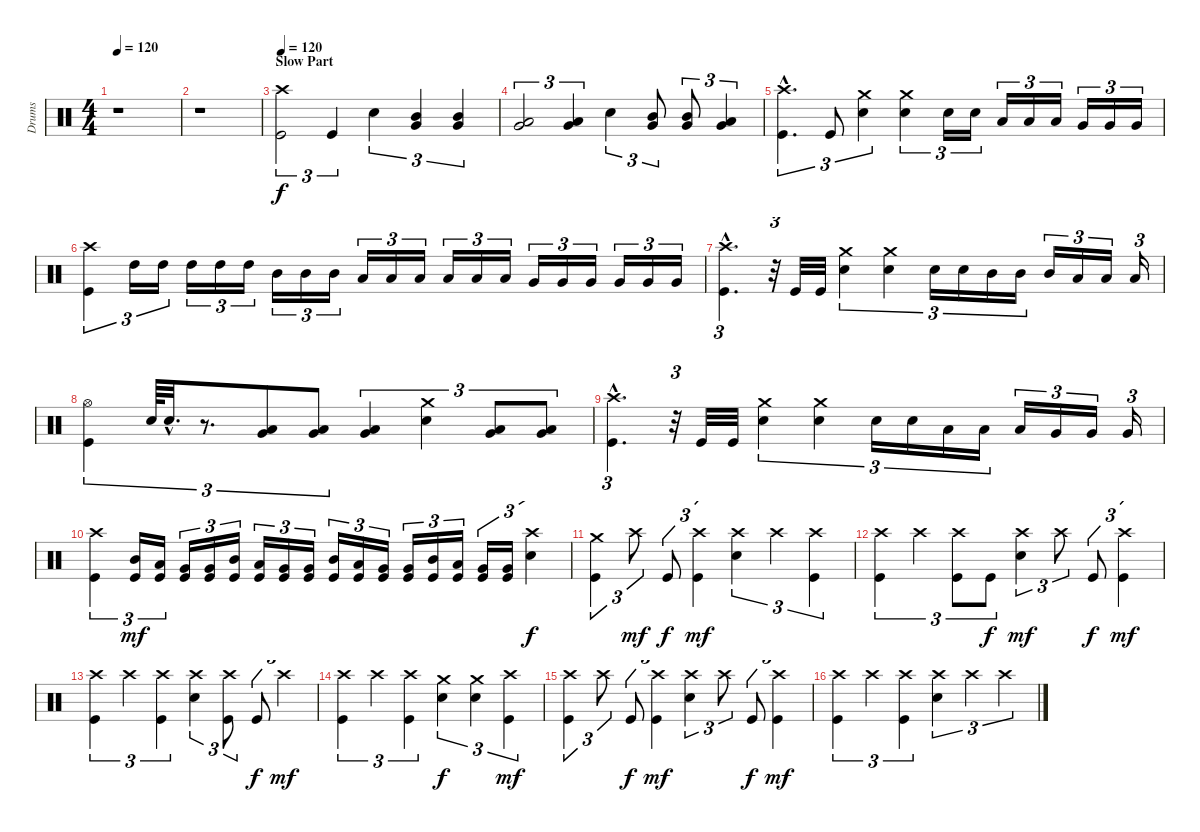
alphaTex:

\track ("Drums" "Drums") {instrument percussion}
\staff {score}
\articulation defaults
\ts (4 4)
\tempo 120
\clef neutral
\ks c
r.1{dy p} |
r.1 |
\section ("" "Slow Part")
\tempo 120
("Crash high (hit)" "Kick (hit)").2{tu (3 2) dy f} "Kick (hit)".4{tu (3 2)} "Electric Snare (hit)".4{tu (3 2)} ("Mid Tom (hit)" "Very Low Tom (hit)").4{tu (3 2)} ("Mid Tom (hit)" "Very Low Tom (hit)").4{tu (3 2)} |
("Low Tom (hit)" "Very Low Tom (hit)").2{tu (3 2)} ("Low Tom (hit)" "Very Low Tom (hit)").4{tu (3 2)} "Electric Snare (hit)".4{tu (3 2)} ("Mid Tom (hit)" "Very Low Tom (hit)").8{tu (3 2)} ("Mid Tom (hit)" "Very Low Tom (hit)").8{tu (3 2)} ("Low Tom (hit)" "Very Low Tom (hit)").4{tu (3 2)} |
("Crash high (hit)"{hac} "Kick (hit)"{hac}).4{d tu (3 2)} "Kick (hit)".8{tu (3 2)} ("Crash medium (hit)" "Electric Snare (hit)").4{tu (3 2)} ("Crash medium (hit)" "Electric Snare (hit)").4{tu (3 2)} "Electric Snare (hit)".16{tu (3 2)} "Electric Snare (hit)".16{tu (3 2)} "Low Tom (hit)".16{tu (3 2)} "Low Tom (hit)".16{tu (3 2)} "Low Tom (hit)".16{tu (3 2)} "Very Low Tom (hit)".16{tu (3 2)} "Very Low Tom (hit)".16{tu (3 2)} "Very Low Tom (hit)".16{tu (3 2)} |
("Crash high (hit)" "Kick (hit)").4{tu (3 2)} "High Tom (hit)".16{tu (3 2)} "High Tom (hit)".16{tu (3 2)} "High Tom (hit)".16{tu (3 2)} "High Tom (hit)".16{tu (3 2)} "High Tom (hit)".16{tu (3 2)} "Mid Tom (hit)".16{tu (3 2)} "Mid Tom (hit)".16{tu (3 2)} "Mid Tom (hit)".16{tu (3 2)} "Low Tom (hit)".16{tu (3 2)} "Low Tom (hit)".16{tu (3 2)} "Low Tom (hit)".16{tu (3 2)} "Low Tom (hit)".16{tu (3 2)} "Low Tom (hit)".16{tu (3 2)} "Low Tom (hit)".16{tu (3 2)} "Very Low Tom (hit)".16{tu (3 2)} "Very Low Tom (hit)".16{tu (3 2)} "Very Low Tom (hit)".16{tu (3 2)} "Very Low Tom (hit)".16{tu (3 2)} "Very Low Tom (hit)".16{tu (3 2)} "Very Low Tom (hit)".16{tu (3 2)} |
("Crash high (hit)"{hac} "Kick (hit)"{hac}).4{d tu (3 2)} r.32{tu (3 2)} "Kick (hit)".32 "Kick (hit)".32 ("Crash medium (hit)" "Electric Snare (hit)").4{tu (3 2)} ("Crash medium (hit)" "Electric Snare (hit)").4{tu (3 2)} "Electric Snare (hit)".16{tu (3 2)} "Electric Snare (hit)".16{tu (3 2)} "Mid Tom (hit)".16{tu (3 2)} "Mid Tom (hit)".16{tu (3 2)} "Mid Tom (hit)".16{tu (3 2)} "Low Tom (hit)".16{tu (3 2)} "Low Tom (hit)".16{tu (3 2)} "Low Tom (hit)".16{tu (3 2)} |
("Hi-Hat (open)" "Kick (hit)").4{tu (3 2)} "Electric Snare (hit)".64{tu (3 2)} "Electric Snare (hit)"{hac}.32{d tu (3 2)} r.8{d tu (3 2)} ("Low Tom (hit)" "Very Low Tom (hit)").8{tu (3 2)} ("Low Tom (hit)" "Very Low Tom (hit)").8{tu (3 2)} ("Low Tom (hit)" "Very Low Tom (hit)").4{tu (3 2)} ("Crash medium (hit)" "Electric Snare (hit)").4{tu (3 2)} ("Low Tom (hit)" "Very Low Tom (hit)").8{tu (3 2)} ("Low Tom (hit)" "Very Low Tom (hit)").8{tu (3 2)} |
("Crash high (hit)"{hac} "Kick (hit)"{hac}).4{d tu (3 2)} r.32{tu (3 2)} "Kick (hit)".32 "Kick (hit)".32 ("Crash medium (hit)" "Electric Snare (hit)").4{tu (3 2)} ("Crash medium (hit)" "Electric Snare (hit)").4{tu (3 2)} "Electric Snare (hit)".16{tu (3 2)} "Electric Snare (hit)".16{tu (3 2)} "Low Tom (hit)".16{tu (3 2)} "Low Tom (hit)".16{tu (3 2)} "Low Tom (hit)".16{tu (3 2)} "Very Low Tom (hit)".16{tu (3 2)} "Very Low Tom (hit)".16{tu (3 2)} "Very Low Tom (hit)".16{tu (3 2)} |
("Crash high (hit)" "Kick (hit)").4{tu (3 2)} ("Mid Tom (hit)" "Kick (hit)").16{tu (3 2) dy mf} ("Low Tom (hit)" "Kick (hit)").16{tu (3 2)} ("Very Low Tom (hit)" "Kick (hit)").16{tu (3 2)} ("Very Low Tom (hit)" "Kick (hit)").16{tu (3 2)} ("Mid Tom (hit)" "Kick (hit)").16{tu (3 2)} ("Low Tom (hit)" "Kick (hit)").16{tu (3 2)} ("Very Low Tom (hit)" "Kick (hit)").16{tu (3 2)} ("Very Low Tom (hit)" "Kick (hit)").16{tu (3 2)} ("Mid Tom (hit)" "Kick (hit)").16{tu (3 2)} ("Low Tom (hit)" "Kick (hit)").16{tu (3 2)} ("Very Low Tom (hit)" "Kick (hit)").16{tu (3 2)} ("Very Low Tom (hit)" "Kick (hit)").16{tu (3 2)} ("Mid Tom (hit)" "Kick (hit)").16{tu (3 2)} ("Low Tom (hit)" "Kick (hit)").16{tu (3 2)} ("Very Low Tom (hit)" "Kick (hit)").16{tu (3 2)} ("Very Low Tom (hit)" "Kick (hit)").16{tu (3 2)} ("Crash high (hit)" "Electric Snare (hit)").4{tu (3 2) dy f} |
("Crash medium (hit)" "Kick (hit)").4{tu (3 2)} "Crash high (hit)".8{tu (3 2) dy mf} "Kick (hit)".8{tu (3 2) dy f} ("Crash high (hit)" "Kick (hit)").4{tu (3 2) dy mf} ("Crash high (hit)" "Electric Snare (hit)").4{tu (3 2)} "Crash high (hit)".4{tu (3 2)} ("Crash high (hit)" "Kick (hit)").4{tu (3 2)} |
("Crash high (hit)" "Kick (hit)").4{tu (3 2)} "Crash high (hit)".4{tu (3 2)} ("Crash high (hit)" "Kick (hit)").8{tu (3 2)} "Kick (hit)".8{tu (3 2) dy f} ("Crash high (hit)" "Electric Snare (hit)").4{tu (3 2) dy mf} "Crash high (hit)".8{tu (3 2)} "Kick (hit)".8{tu (3 2) dy f} ("Crash high (hit)" "Kick (hit)").4{tu (3 2) dy mf} |
("Crash high (hit)" "Kick (hit)").4{tu (3 2)} "Crash high (hit)".4{tu (3 2)} ("Crash high (hit)" "Kick (hit)").4{tu (3 2)} ("Crash high (hit)" "Electric Snare (hit)").4{tu (3 2)} ("Crash high (hit)" "Kick (hit)").8{tu (3 2)} "Kick (hit)".8{tu (3 2) dy f} "Crash high (hit)".4{tu (3 2) dy mf} |
("Crash high (hit)" "Kick (hit)").4{tu (3 2)} "Crash high (hit)".4{tu (3 2)} ("Crash high (hit)" "Kick (hit)").4{tu (3 2)} ("Crash medium (hit)" "Electric Snare (hit)").4{tu (3 2) dy f} ("Crash medium (hit)" "Electric Snare (hit)").4{tu (3 2)} ("Crash high (hit)" "Kick (hit)").4{tu (3 2) dy mf} |
("Crash high (hit)" "Kick (hit)").4{tu (3 2)} "Crash high (hit)".8{tu (3 2)} "Kick (hit)".8{tu (3 2) dy f} ("Crash high (hit)" "Kick (hit)").4{tu (3 2) dy mf} ("Crash high (hit)" "Electric Snare (hit)").4{tu (3 2)} "Crash high (hit)".8{tu (3 2)} "Kick (hit)".8{tu (3 2) dy f} ("Crash high (hit)" "Kick (hit)").4{tu (3 2) dy mf} |
("Crash high (hit)" "Kick (hit)").4{tu (3 2)} "Crash high (hit)".4{tu (3 2)} ("Crash high (hit)" "Kick (hit)").4{tu (3 2)} ("Crash high (hit)" "Electric Snare (hit)").4{tu (3 2)} "Crash high (hit)".4{tu (3 2)} "Crash high (hit)".4{tu (3 2)}
